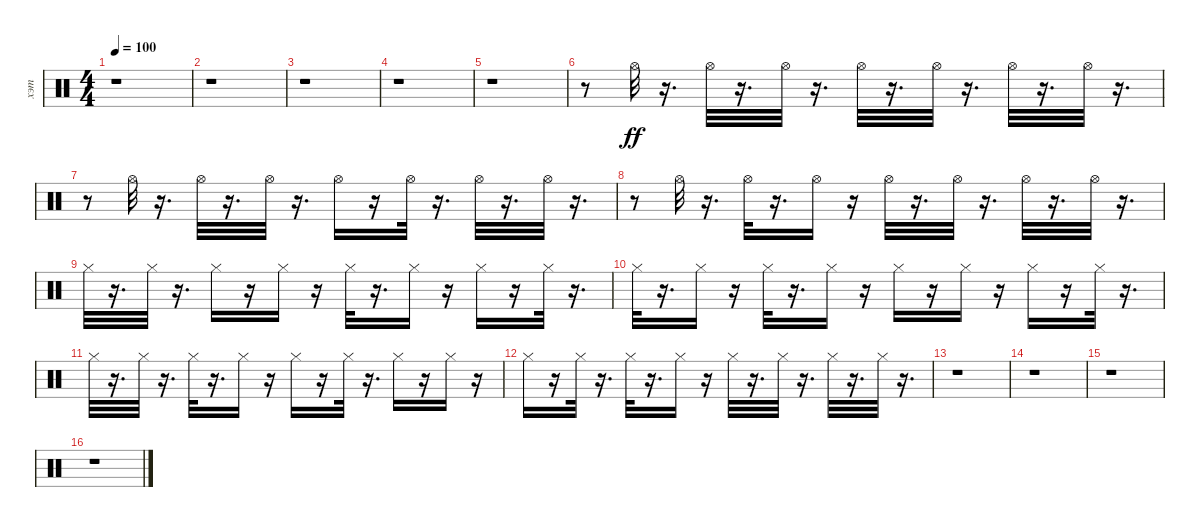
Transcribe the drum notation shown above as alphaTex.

\track ("хэт" "хэт") {instrument percussion}
\staff {score}
\articulation defaults
\ts (4 4)
\tempo 100
\clef neutral
\ks c
r.1{dy ff} |
r.1 |
r.1 |
r.1 |
r.1 |
r.8 "Hi-Hat (open)".32 r.16{d} "Hi-Hat (open)".32 r.16{d} "Hi-Hat (open)".32 r.16{d} "Hi-Hat (open)".32 r.16{d} "Hi-Hat (open)".32 r.16{d} "Hi-Hat (open)".32 r.16{d} "Hi-Hat (open)".32 r.16{d} |
r.8 "Hi-Hat (open)".32 r.16{d} "Hi-Hat (open)".32 r.16{d} "Hi-Hat (open)".32 r.16{d} "Hi-Hat (open)".16 r.16 "Hi-Hat (open)".32 r.16{d} "Hi-Hat (open)".32 r.16{d} "Hi-Hat (open)".32 r.16{d} |
r.8 "Hi-Hat (open)".32 r.16{d} "Hi-Hat (open)".32 r.16{d} "Hi-Hat (open)".16 r.16 "Hi-Hat (open)".32 r.16{d} "Hi-Hat (open)".32 r.16{d} "Hi-Hat (open)".32 r.16{d} "Hi-Hat (open)".32 r.16{d} |
"Hi-Hat (closed)".32 r.16{d} "Hi-Hat (closed)".32 r.16{d} "Hi-Hat (closed)".16 r.16 "Hi-Hat (closed)".16 r.16 "Hi-Hat (closed)".32 r.16{d} "Hi-Hat (closed)".16 r.16 "Hi-Hat (closed)".16 r.16 "Hi-Hat (closed)".32 r.16{d} |
"Hi-Hat (closed)".32 r.16{d} "Hi-Hat (closed)".16 r.16 "Hi-Hat (closed)".32 r.16{d} "Hi-Hat (closed)".16 r.16 "Hi-Hat (closed)".16 r.16 "Hi-Hat (closed)".16 r.16 "Hi-Hat (closed)".16 r.16 "Hi-Hat (closed)".32 r.16{d} |
"Hi-Hat (closed)".32 r.16{d} "Hi-Hat (closed)".32 r.16{d} "Hi-Hat (closed)".32 r.16{d} "Hi-Hat (closed)".16 r.16 "Hi-Hat (closed)".16 r.16 "Hi-Hat (closed)".32 r.16{d} "Hi-Hat (closed)".16 r.16 "Hi-Hat (closed)".16 r.16 |
"Hi-Hat (closed)".16 r.16 "Hi-Hat (closed)".32 r.16{d} "Hi-Hat (closed)".32 r.16{d} "Hi-Hat (closed)".16 r.16 "Hi-Hat (closed)".32 r.16{d} "Hi-Hat (closed)".32 r.16{d} "Hi-Hat (closed)".32 r.16{d} "Hi-Hat (closed)".32 r.16{d} |
r.1 |
r.1 |
r.1 |
r.1
